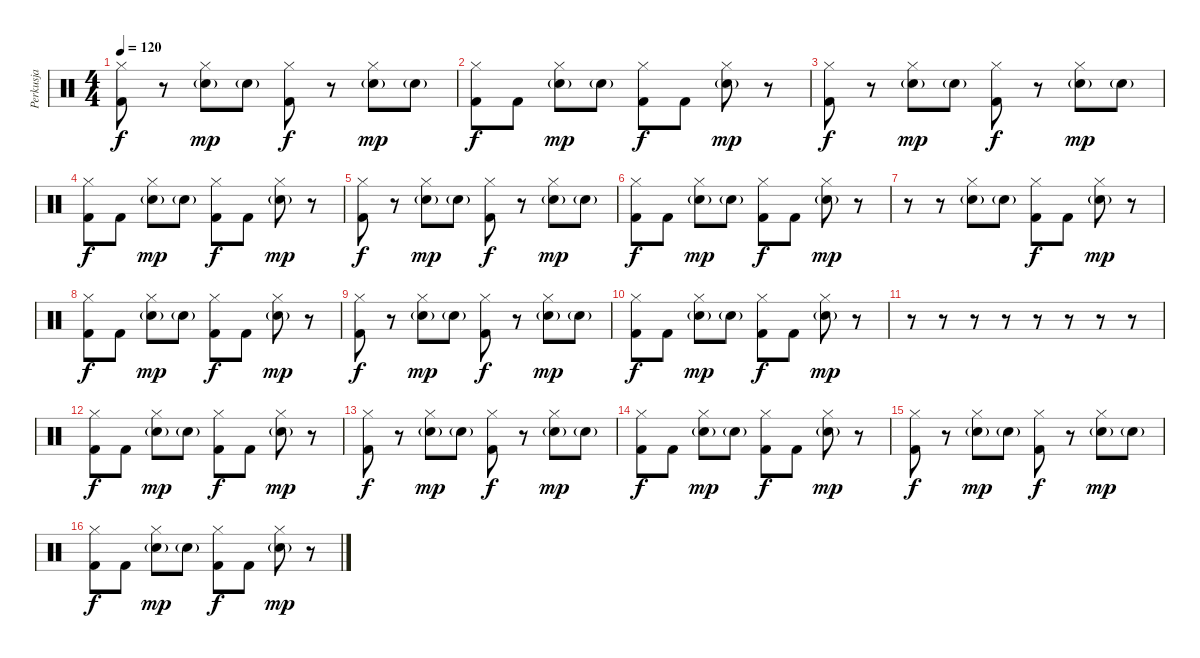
\track ("Perkusja" "Perkusja") {instrument percussion}
\staff {score}
\articulation defaults
\ts (4 4)
\tempo 120
\clef neutral
\ks c
("Hi-Hat (closed)" "Kick (hit) 2").8{dy f} r.8 ("Hi-Hat (closed)" "Snare (hit) 2"{g}).8{dy mp} "Snare (hit) 2"{g}.8 ("Hi-Hat (closed)" "Kick (hit) 2").8{dy f} r.8 ("Hi-Hat (closed)" "Snare (hit) 2"{g}).8{dy mp} "Snare (hit) 2"{g}.8 |
("Hi-Hat (closed)" "Kick (hit) 2").8{dy f} "Kick (hit) 2".8 ("Hi-Hat (closed)" "Snare (hit) 2"{g}).8{dy mp} "Snare (hit) 2"{g}.8 ("Hi-Hat (closed)" "Kick (hit) 2").8{dy f} "Kick (hit) 2".8 ("Hi-Hat (closed)" "Snare (hit) 2"{g}).8{dy mp} r.8 |
("Hi-Hat (closed)" "Kick (hit) 2").8{dy f} r.8 ("Hi-Hat (closed)" "Snare (hit) 2"{g}).8{dy mp} "Snare (hit) 2"{g}.8 ("Hi-Hat (closed)" "Kick (hit) 2").8{dy f} r.8 ("Hi-Hat (closed)" "Snare (hit) 2"{g}).8{dy mp} "Snare (hit) 2"{g}.8 |
("Hi-Hat (closed)" "Kick (hit) 2").8{dy f} "Kick (hit) 2".8 ("Hi-Hat (closed)" "Snare (hit) 2"{g}).8{dy mp} "Snare (hit) 2"{g}.8 ("Hi-Hat (closed)" "Kick (hit) 2").8{dy f} "Kick (hit) 2".8 ("Hi-Hat (closed)" "Snare (hit) 2"{g}).8{dy mp} r.8 |
("Hi-Hat (closed)" "Kick (hit) 2").8{dy f} r.8 ("Hi-Hat (closed)" "Snare (hit) 2"{g}).8{dy mp} "Snare (hit) 2"{g}.8 ("Hi-Hat (closed)" "Kick (hit) 2").8{dy f} r.8 ("Hi-Hat (closed)" "Snare (hit) 2"{g}).8{dy mp} "Snare (hit) 2"{g}.8 |
("Hi-Hat (closed)" "Kick (hit) 2").8{dy f} "Kick (hit) 2".8 ("Hi-Hat (closed)" "Snare (hit) 2"{g}).8{dy mp} "Snare (hit) 2"{g}.8 ("Hi-Hat (closed)" "Kick (hit) 2").8{dy f} "Kick (hit) 2".8 ("Hi-Hat (closed)" "Snare (hit) 2"{g}).8{dy mp} r.8 |
r.8 r.8 ("Hi-Hat (closed)" "Snare (hit) 2"{g}).8 "Snare (hit) 2"{g}.8 ("Hi-Hat (closed)" "Kick (hit) 2").8{dy f} "Kick (hit) 2".8 ("Hi-Hat (closed)" "Snare (hit) 2"{g}).8{dy mp} r.8 |
("Hi-Hat (closed)" "Kick (hit) 2").8{dy f} "Kick (hit) 2".8 ("Hi-Hat (closed)" "Snare (hit) 2"{g}).8{dy mp} "Snare (hit) 2"{g}.8 ("Hi-Hat (closed)" "Kick (hit) 2").8{dy f} "Kick (hit) 2".8 ("Hi-Hat (closed)" "Snare (hit) 2"{g}).8{dy mp} r.8 |
("Hi-Hat (closed)" "Kick (hit) 2").8{dy f} r.8 ("Hi-Hat (closed)" "Snare (hit) 2"{g}).8{dy mp} "Snare (hit) 2"{g}.8 ("Hi-Hat (closed)" "Kick (hit) 2").8{dy f} r.8 ("Hi-Hat (closed)" "Snare (hit) 2"{g}).8{dy mp} "Snare (hit) 2"{g}.8 |
("Hi-Hat (closed)" "Kick (hit) 2").8{dy f} "Kick (hit) 2".8 ("Hi-Hat (closed)" "Snare (hit) 2"{g}).8{dy mp} "Snare (hit) 2"{g}.8 ("Hi-Hat (closed)" "Kick (hit) 2").8{dy f} "Kick (hit) 2".8 ("Hi-Hat (closed)" "Snare (hit) 2"{g}).8{dy mp} r.8 |
r.8 r.8 r.8 r.8 r.8 r.8 r.8 r.8 |
("Hi-Hat (closed)" "Kick (hit) 2").8{dy f} "Kick (hit) 2".8 ("Hi-Hat (closed)" "Snare (hit) 2"{g}).8{dy mp} "Snare (hit) 2"{g}.8 ("Hi-Hat (closed)" "Kick (hit) 2").8{dy f} "Kick (hit) 2".8 ("Hi-Hat (closed)" "Snare (hit) 2"{g}).8{dy mp} r.8 |
("Hi-Hat (closed)" "Kick (hit) 2").8{dy f} r.8 ("Hi-Hat (closed)" "Snare (hit) 2"{g}).8{dy mp} "Snare (hit) 2"{g}.8 ("Hi-Hat (closed)" "Kick (hit) 2").8{dy f} r.8 ("Hi-Hat (closed)" "Snare (hit) 2"{g}).8{dy mp} "Snare (hit) 2"{g}.8 |
("Hi-Hat (closed)" "Kick (hit) 2").8{dy f} "Kick (hit) 2".8 ("Hi-Hat (closed)" "Snare (hit) 2"{g}).8{dy mp} "Snare (hit) 2"{g}.8 ("Hi-Hat (closed)" "Kick (hit) 2").8{dy f} "Kick (hit) 2".8 ("Hi-Hat (closed)" "Snare (hit) 2"{g}).8{dy mp} r.8 |
("Hi-Hat (closed)" "Kick (hit) 2").8{dy f} r.8 ("Hi-Hat (closed)" "Snare (hit) 2"{g}).8{dy mp} "Snare (hit) 2"{g}.8 ("Hi-Hat (closed)" "Kick (hit) 2").8{dy f} r.8 ("Hi-Hat (closed)" "Snare (hit) 2"{g}).8{dy mp} "Snare (hit) 2"{g}.8 |
("Hi-Hat (closed)" "Kick (hit) 2").8{dy f} "Kick (hit) 2".8 ("Hi-Hat (closed)" "Snare (hit) 2"{g}).8{dy mp} "Snare (hit) 2"{g}.8 ("Hi-Hat (closed)" "Kick (hit) 2").8{dy f} "Kick (hit) 2".8 ("Hi-Hat (closed)" "Snare (hit) 2"{g}).8{dy mp} r.8
